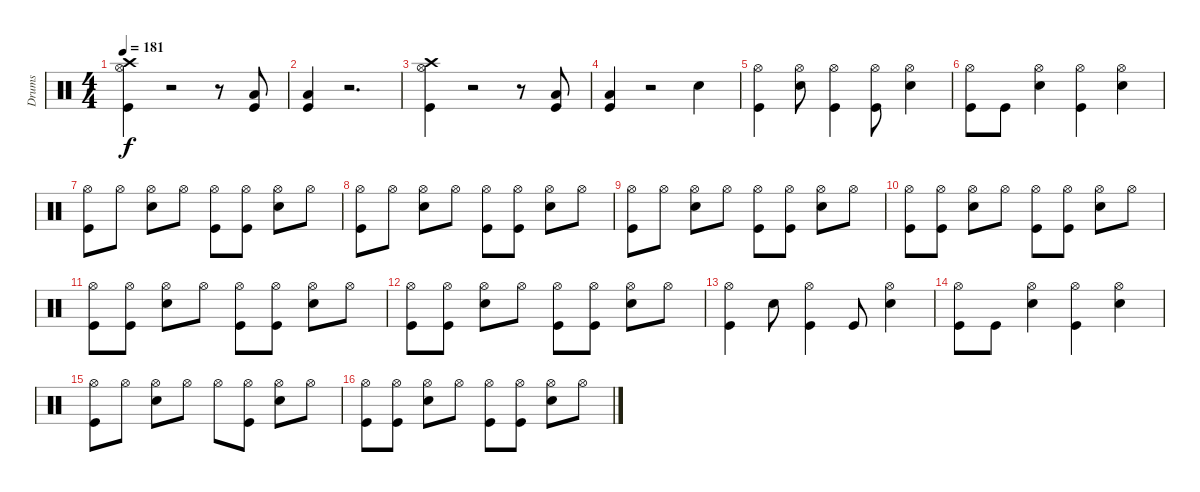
\track ("Drums" "Drums") {instrument percussion}
\staff {score}
\articulation defaults
\ts (4 4)
\tempo 181
\clef neutral
\ks c
("Crash high (hit)" "Hi-Hat (open)" "Kick (hit)").4{dy f} r.2 r.8 ("Low Tom (hit)" "Kick (hit)").8 |
("Low Tom (hit)" "Kick (hit)").4 r.2{d} |
("Crash high (hit)" "Hi-Hat (open)" "Kick (hit)").4 r.2 r.8 ("Low Tom (hit)" "Kick (hit)").8 |
("Low Tom (hit)" "Kick (hit)").4 r.2 "Snare (hit) 2".4 |
("Hi-Hat (open)" "Kick (hit)").4 ("Hi-Hat (open)" "Snare (hit) 2").8 ("Hi-Hat (open)" "Kick (hit)").4 ("Hi-Hat (open)" "Kick (hit)").8 ("Hi-Hat (open)" "Snare (hit) 2").4 |
("Hi-Hat (open)" "Kick (hit)").8 "Kick (hit)".8 ("Hi-Hat (open)" "Snare (hit) 2").4 ("Hi-Hat (open)" "Kick (hit)").4 ("Hi-Hat (open)" "Snare (hit) 2").4 |
("Hi-Hat (open)" "Kick (hit)").8 "Hi-Hat (open)".8 ("Hi-Hat (open)" "Snare (hit) 2").8 "Hi-Hat (open)".8 ("Hi-Hat (open)" "Kick (hit)").8 ("Hi-Hat (open)" "Kick (hit)").8 ("Hi-Hat (open)" "Snare (hit) 2").8 "Hi-Hat (open)".8 |
("Hi-Hat (open)" "Kick (hit)").8 "Hi-Hat (open)".8 ("Hi-Hat (open)" "Snare (hit) 2").8 "Hi-Hat (open)".8 ("Hi-Hat (open)" "Kick (hit)").8 ("Hi-Hat (open)" "Kick (hit)").8 ("Hi-Hat (open)" "Snare (hit) 2").8 "Hi-Hat (open)".8 |
("Hi-Hat (open)" "Kick (hit)").8 "Hi-Hat (open)".8 ("Hi-Hat (open)" "Snare (hit) 2").8 "Hi-Hat (open)".8 ("Hi-Hat (open)" "Kick (hit)").8 ("Hi-Hat (open)" "Kick (hit)").8 ("Hi-Hat (open)" "Snare (hit) 2").8 "Hi-Hat (open)".8 |
("Hi-Hat (open)" "Kick (hit)").8 ("Hi-Hat (open)" "Kick (hit)").8 ("Hi-Hat (open)" "Snare (hit) 2").8 "Hi-Hat (open)".8 ("Hi-Hat (open)" "Kick (hit)").8 ("Hi-Hat (open)" "Kick (hit)").8 ("Hi-Hat (open)" "Snare (hit) 2").8 "Hi-Hat (open)".8 |
("Hi-Hat (open)" "Kick (hit)").8 ("Hi-Hat (open)" "Kick (hit)").8 ("Hi-Hat (open)" "Snare (hit) 2").8 "Hi-Hat (open)".8 ("Hi-Hat (open)" "Kick (hit)").8 ("Hi-Hat (open)" "Kick (hit)").8 ("Hi-Hat (open)" "Snare (hit) 2").8 "Hi-Hat (open)".8 |
("Hi-Hat (open)" "Kick (hit)").8 ("Hi-Hat (open)" "Kick (hit)").8 ("Hi-Hat (open)" "Snare (hit) 2").8 "Hi-Hat (open)".8 ("Hi-Hat (open)" "Kick (hit)").8 ("Hi-Hat (open)" "Kick (hit)").8 ("Hi-Hat (open)" "Snare (hit) 2").8 "Hi-Hat (open)".8 |
("Hi-Hat (open)" "Kick (hit)").4 "Snare (hit) 2".8 ("Hi-Hat (open)" "Kick (hit)").4 "Kick (hit)".8 ("Hi-Hat (open)" "Snare (hit) 2").4 |
("Hi-Hat (open)" "Kick (hit)").8 "Kick (hit)".8 ("Hi-Hat (open)" "Snare (hit) 2").4 ("Hi-Hat (open)" "Kick (hit)").4 ("Hi-Hat (open)" "Snare (hit) 2").4 |
("Hi-Hat (open)" "Kick (hit)").8 "Hi-Hat (open)".8 ("Hi-Hat (open)" "Snare (hit) 2").8 "Hi-Hat (open)".8 "Hi-Hat (open)".8 ("Hi-Hat (open)" "Kick (hit)").8 ("Hi-Hat (open)" "Snare (hit) 2").8 "Hi-Hat (open)".8 |
("Hi-Hat (open)" "Kick (hit)").8 ("Hi-Hat (open)" "Kick (hit)").8 ("Hi-Hat (open)" "Snare (hit) 2").8 "Hi-Hat (open)".8 ("Hi-Hat (open)" "Kick (hit)").8 ("Hi-Hat (open)" "Kick (hit)").8 ("Hi-Hat (open)" "Snare (hit) 2").8 "Hi-Hat (open)".8
